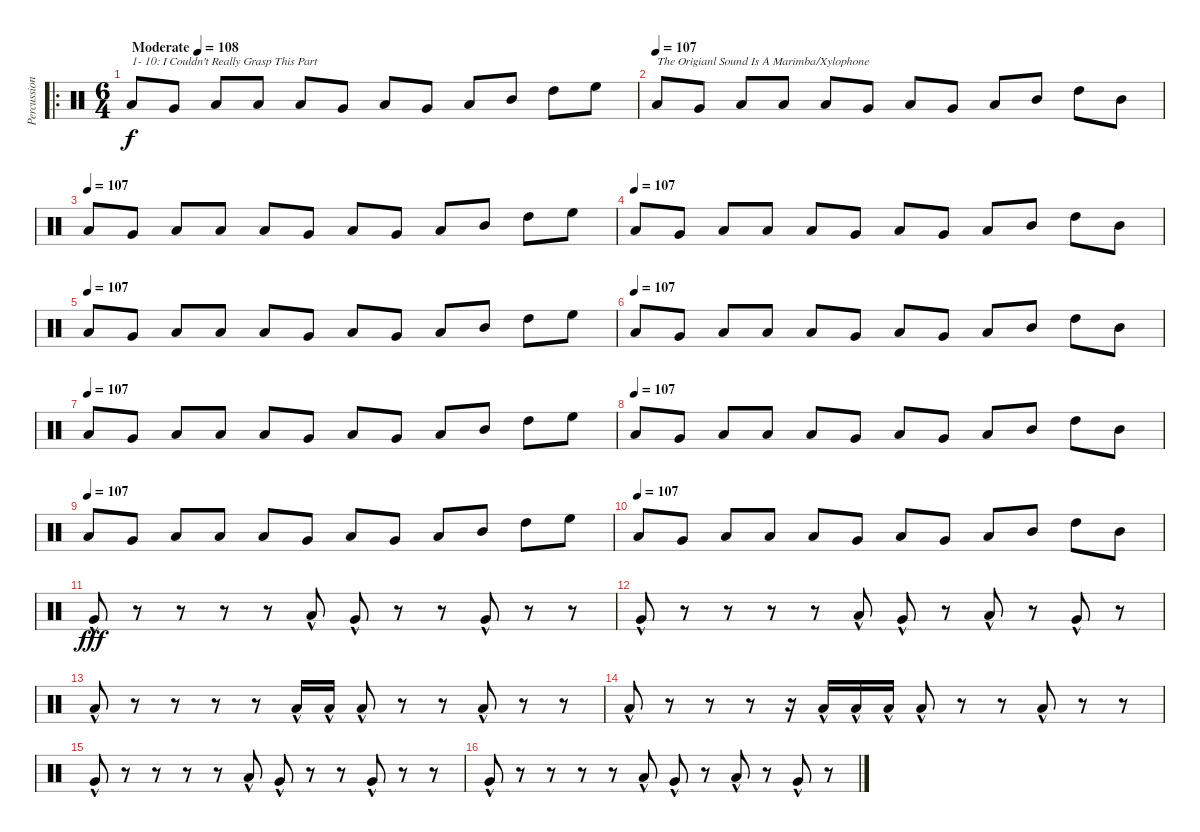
\track ("Percussion" "Percussion") {instrument percussion}
\staff {score}
\articulation defaults
\ro
\ts (6 4)
\tempo (108 "Moderate")
\tempo 107
\tempo (108 "Moderate")
\clef neutral
\ks c "Low Floor Tom (hit)".8{txt "1- 10: I Couldn't Really Grasp This Part" dy f} "Very Low Tom (hit)".8 "Low Tom (hit)".8 "Low Floor Tom (hit)".8 "Low Tom (hit)".8 "Very Low Tom (hit)".8 "Low Floor Tom (hit)".8 "Very Low Tom (hit)".8 "Low Tom (hit)".8 "Mid Tom (hit)".8 "High Tom (hit)".8 "High Floor Tom (hit)".8
|
\tempo (107)
"Low Floor Tom (hit)".8{txt "The Origianl Sound Is A Marimba/Xylophone"} "Very Low Tom (hit)".8 "Low Tom (hit)".8 "Low Floor Tom (hit)".8 "Low Tom (hit)".8 "Very Low Tom (hit)".8 "Low Floor Tom (hit)".8 "Very Low Tom (hit)".8 "Low Tom (hit)".8 "Mid Tom (hit)".8 "High Tom (hit)".8 "Mid Tom (hit)".8 |
\tempo (107)
"Low Floor Tom (hit)".8 "Very Low Tom (hit)".8 "Low Tom (hit)".8 "Low Floor Tom (hit)".8 "Low Tom (hit)".8 "Very Low Tom (hit)".8 "Low Floor Tom (hit)".8 "Very Low Tom (hit)".8 "Low Tom (hit)".8 "Mid Tom (hit)".8 "High Tom (hit)".8 "High Floor Tom (hit)".8 |
\tempo (107)
"Low Floor Tom (hit)".8 "Very Low Tom (hit)".8 "Low Tom (hit)".8 "Low Floor Tom (hit)".8 "Low Tom (hit)".8 "Very Low Tom (hit)".8 "Low Floor Tom (hit)".8 "Very Low Tom (hit)".8 "Low Tom (hit)".8 "Mid Tom (hit)".8 "High Tom (hit)".8 "Mid Tom (hit)".8 |
\tempo (107)
"Low Floor Tom (hit)".8 "Very Low Tom (hit)".8 "Low Tom (hit)".8 "Low Floor Tom (hit)".8 "Low Tom (hit)".8 "Very Low Tom (hit)".8 "Low Floor Tom (hit)".8 "Very Low Tom (hit)".8 "Low Tom (hit)".8 "Mid Tom (hit)".8 "High Tom (hit)".8 "High Floor Tom (hit)".8 |
\tempo (107)
"Low Floor Tom (hit)".8 "Very Low Tom (hit)".8 "Low Tom (hit)".8 "Low Floor Tom (hit)".8 "Low Tom (hit)".8 "Very Low Tom (hit)".8 "Low Floor Tom (hit)".8 "Very Low Tom (hit)".8 "Low Tom (hit)".8 "Mid Tom (hit)".8 "High Tom (hit)".8 "Mid Tom (hit)".8 |
\tempo (107)
"Low Floor Tom (hit)".8 "Very Low Tom (hit)".8 "Low Tom (hit)".8 "Low Floor Tom (hit)".8 "Low Tom (hit)".8 "Very Low Tom (hit)".8 "Low Floor Tom (hit)".8 "Very Low Tom (hit)".8 "Low Tom (hit)".8 "Mid Tom (hit)".8 "High Tom (hit)".8 "High Floor Tom (hit)".8 |
\tempo (107)
"Low Floor Tom (hit)".8 "Very Low Tom (hit)".8 "Low Tom (hit)".8 "Low Floor Tom (hit)".8 "Low Tom (hit)".8 "Very Low Tom (hit)".8 "Low Floor Tom (hit)".8 "Very Low Tom (hit)".8 "Low Tom (hit)".8 "Mid Tom (hit)".8 "High Tom (hit)".8 "Mid Tom (hit)".8 |
\tempo (107)
"Low Floor Tom (hit)".8 "Very Low Tom (hit)".8 "Low Tom (hit)".8 "Low Floor Tom (hit)".8 "Low Tom (hit)".8 "Very Low Tom (hit)".8 "Low Floor Tom (hit)".8 "Very Low Tom (hit)".8 "Low Tom (hit)".8 "Mid Tom (hit)".8 "High Tom (hit)".8 "High Floor Tom (hit)".8 |
\tempo (107)
"Low Floor Tom (hit)".8 "Very Low Tom (hit)".8 "Low Tom (hit)".8 "Low Floor Tom (hit)".8 "Low Tom (hit)".8 "Very Low Tom (hit)".8 "Low Floor Tom (hit)".8 "Very Low Tom (hit)".8 "Low Tom (hit)".8 "Mid Tom (hit)".8 "High Tom (hit)".8 "Mid Tom (hit)".8 |
"Very Low Tom (hit)"{hac}.8{dy fff} r.8 r.8 r.8 r.8 "Low Tom (hit)"{hac}.8 "Very Low Tom (hit)"{hac}.8 r.8 r.8 "Very Low Tom (hit)"{hac}.8 r.8 r.8 |
"Very Low Tom (hit)"{hac}.8 r.8 r.8 r.8 r.8 "Low Tom (hit)"{hac}.8 "Very Low Tom (hit)"{hac}.8 r.8 "Low Floor Tom (hit)"{hac}.8 r.8 "Very Low Tom (hit)"{hac}.8 r.8 |
"Low Tom (hit)"{hac}.8 r.8 r.8 r.8 r.8 "Low Tom (hit)"{hac}.16 "Low Tom (hit)"{hac}.16 "Low Tom (hit)"{hac}.8 r.8 r.8 "Low Tom (hit)"{hac}.8 r.8 r.8 |
"Low Tom (hit)"{hac}.8 r.8 r.8 r.8 r.16 "Low Tom (hit)"{hac}.16 "Low Tom (hit)"{hac}.16 "Low Tom (hit)"{hac}.16 "Low Tom (hit)"{hac}.8 r.8 r.8 "Low Tom (hit)"{hac}.8 r.8 r.8 |
"Very Low Tom (hit)"{hac}.8 r.8 r.8 r.8 r.8 "Low Tom (hit)"{hac}.8 "Very Low Tom (hit)"{hac}.8 r.8 r.8 "Very Low Tom (hit)"{hac}.8 r.8 r.8 |
"Very Low Tom (hit)"{hac}.8 r.8 r.8 r.8 r.8 "Low Tom (hit)"{hac}.8 "Very Low Tom (hit)"{hac}.8 r.8 "Low Floor Tom (hit)"{hac}.8 r.8 "Very Low Tom (hit)"{hac}.8 r.8
